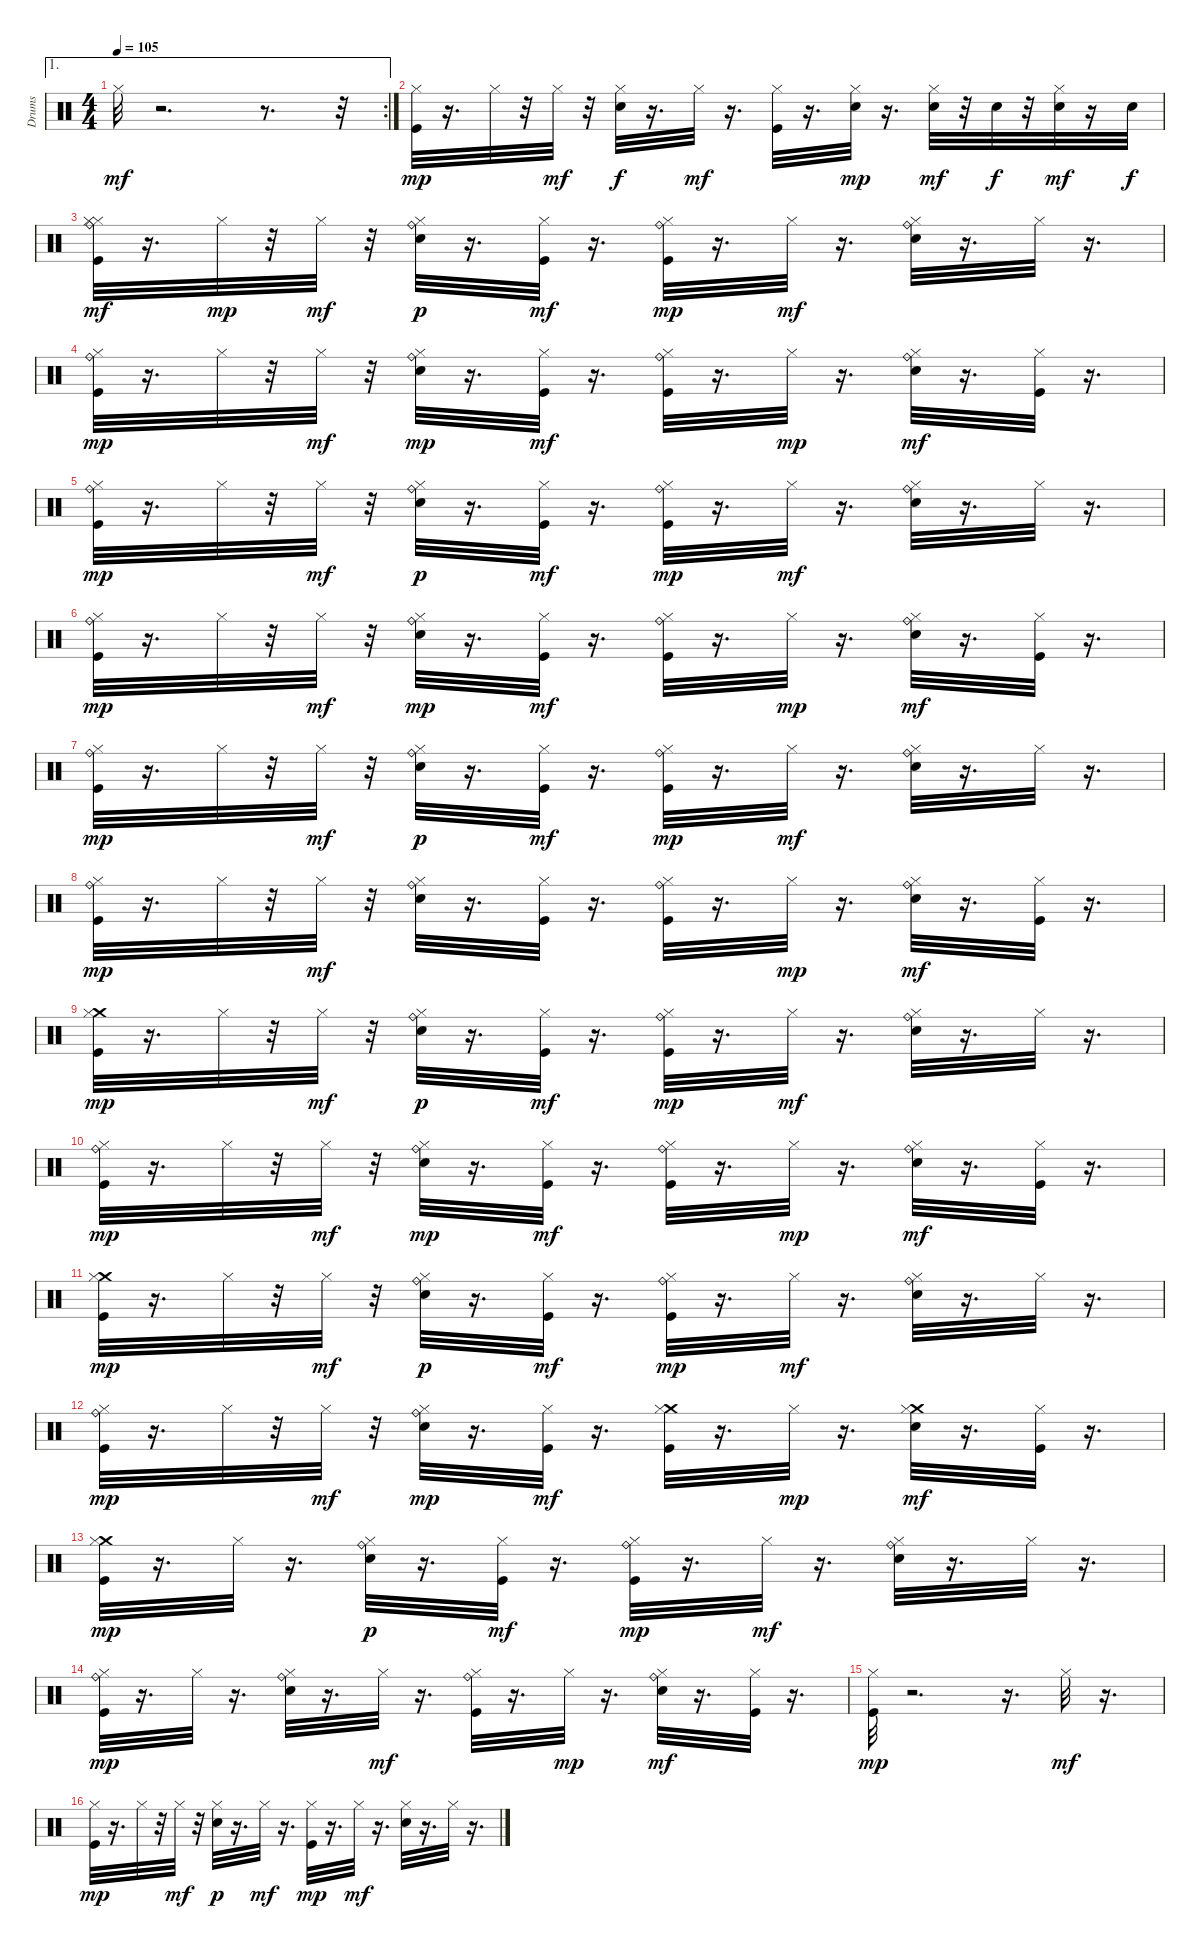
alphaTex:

\track ("Drums" "Drums") {instrument percussion}
\staff {score}
\articulation defaults
\ae 1
\rc 2
\ts (4 4)
\tempo 105
\clef neutral
\ks c "Hi-Hat (closed)".32{dy mf}
r.2{d} r.8{d} r.32 |
("Kick (hit)" "Hi-Hat (closed)").32{dy mp} r.16{d} "Hi-Hat (closed)".32 r.32 "Hi-Hat (closed)".32{dy mf} r.32 ("Snare (hit) 2" "Hi-Hat (closed)").32{dy f} r.16{d} "Hi-Hat (closed)".32{dy mf} r.16{d} ("Kick (hit)" "Hi-Hat (closed)").32 r.16{d} ("Snare (hit) 2" "Hi-Hat (closed)").32{dy mp} r.16{d} ("Snare (hit) 2" "Hi-Hat (closed)").32{dy mf} r.32 "Snare (hit) 2".32{dy f} r.32 ("Snare (hit) 2" "Hi-Hat (closed)").32{dy mf} r.16 "Snare (hit) 2".32{dy f} |
("Ride (bell)" "Kick (hit)" "Hi-Hat (closed)" "Hi-Hat (closed)").32{dy mf} r.16{d} "Hi-Hat (closed)".32{dy mp} r.32 "Hi-Hat (closed)".32{dy mf} r.32 ("Snare (hit) 2" "Ride (bell)" "Hi-Hat (closed)").32{dy p} r.16{d} ("Kick (hit)" "Hi-Hat (closed)").32{dy mf} r.16{d} ("Ride (bell)" "Kick (hit)" "Hi-Hat (closed)").32{dy mp} r.16{d} "Hi-Hat (closed)".32{dy mf} r.16{d} ("Snare (hit) 2" "Ride (bell)" "Hi-Hat (closed)").32 r.16{d} "Hi-Hat (closed)".32 r.16{d} |
("Ride (bell)" "Kick (hit)" "Hi-Hat (closed)").32{dy mp} r.16{d} "Hi-Hat (closed)".32 r.32 "Hi-Hat (closed)".32{dy mf} r.32 ("Snare (hit) 2" "Ride (bell)" "Hi-Hat (closed)").32{dy mp} r.16{d} ("Kick (hit)" "Hi-Hat (closed)").32{dy mf} r.16{d} ("Ride (bell)" "Kick (hit)" "Hi-Hat (closed)").32 r.16{d} "Hi-Hat (closed)".32{dy mp} r.16{d} ("Snare (hit) 2" "Ride (bell)" "Hi-Hat (closed)").32{dy mf} r.16{d} ("Kick (hit)" "Hi-Hat (closed)").32 r.16{d} |
("Ride (bell)" "Kick (hit)" "Hi-Hat (closed)").32{dy mp} r.16{d} "Hi-Hat (closed)".32 r.32 "Hi-Hat (closed)".32{dy mf} r.32 ("Snare (hit) 2" "Ride (bell)" "Hi-Hat (closed)").32{dy p} r.16{d} ("Kick (hit)" "Hi-Hat (closed)").32{dy mf} r.16{d} ("Ride (bell)" "Kick (hit)" "Hi-Hat (closed)").32{dy mp} r.16{d} "Hi-Hat (closed)".32{dy mf} r.16{d} ("Snare (hit) 2" "Ride (bell)" "Hi-Hat (closed)").32 r.16{d} "Hi-Hat (closed)".32 r.16{d} |
("Ride (bell)" "Kick (hit)" "Hi-Hat (closed)").32{dy mp} r.16{d} "Hi-Hat (closed)".32 r.32 "Hi-Hat (closed)".32{dy mf} r.32 ("Snare (hit) 2" "Ride (bell)" "Hi-Hat (closed)").32{dy mp} r.16{d} ("Kick (hit)" "Hi-Hat (closed)").32{dy mf} r.16{d} ("Ride (bell)" "Kick (hit)" "Hi-Hat (closed)").32 r.16{d} "Hi-Hat (closed)".32{dy mp} r.16{d} ("Snare (hit) 2" "Ride (bell)" "Hi-Hat (closed)").32{dy mf} r.16{d} ("Kick (hit)" "Hi-Hat (closed)").32 r.16{d} |
("Ride (bell)" "Kick (hit)" "Hi-Hat (closed)").32{dy mp} r.16{d} "Hi-Hat (closed)".32 r.32 "Hi-Hat (closed)".32{dy mf} r.32 ("Snare (hit) 2" "Ride (bell)" "Hi-Hat (closed)").32{dy p} r.16{d} ("Kick (hit)" "Hi-Hat (closed)").32{dy mf} r.16{d} ("Ride (bell)" "Kick (hit)" "Hi-Hat (closed)").32{dy mp} r.16{d} "Hi-Hat (closed)".32{dy mf} r.16{d} ("Snare (hit) 2" "Ride (bell)" "Hi-Hat (closed)").32 r.16{d} "Hi-Hat (closed)".32 r.16{d} |
("Ride (bell)" "Kick (hit)" "Hi-Hat (closed)").32{dy mp} r.16{d} "Hi-Hat (closed)".32 r.32 "Hi-Hat (closed)".32{dy mf} r.32 ("Snare (hit) 2" "Ride (bell)" "Hi-Hat (closed)").32 r.16{d} ("Kick (hit)" "Hi-Hat (closed)").32 r.16{d} ("Ride (bell)" "Kick (hit)" "Hi-Hat (closed)").32 r.16{d} "Hi-Hat (closed)".32{dy mp} r.16{d} ("Snare (hit) 2" "Ride (bell)" "Hi-Hat (closed)").32{dy mf} r.16{d} ("Kick (hit)" "Hi-Hat (closed)").32 r.16{d} |
("Crash medium (hit)" "Kick (hit)" "Hi-Hat (closed)").32{dy mp} r.16{d} "Hi-Hat (closed)".32 r.32 "Hi-Hat (closed)".32{dy mf} r.32 ("Snare (hit) 2" "Ride (bell)" "Hi-Hat (closed)").32{dy p} r.16{d} ("Kick (hit)" "Hi-Hat (closed)").32{dy mf} r.16{d} ("Ride (bell)" "Kick (hit)" "Hi-Hat (closed)").32{dy mp} r.16{d} "Hi-Hat (closed)".32{dy mf} r.16{d} ("Snare (hit) 2" "Ride (bell)" "Hi-Hat (closed)").32 r.16{d} "Hi-Hat (closed)".32 r.16{d} |
("Ride (bell)" "Kick (hit)" "Hi-Hat (closed)").32{dy mp} r.16{d} "Hi-Hat (closed)".32 r.32 "Hi-Hat (closed)".32{dy mf} r.32 ("Snare (hit) 2" "Ride (bell)" "Hi-Hat (closed)").32{dy mp} r.16{d} ("Kick (hit)" "Hi-Hat (closed)").32{dy mf} r.16{d} ("Ride (bell)" "Kick (hit)" "Hi-Hat (closed)").32 r.16{d} "Hi-Hat (closed)".32{dy mp} r.16{d} ("Snare (hit) 2" "Ride (bell)" "Hi-Hat (closed)").32{dy mf} r.16{d} ("Kick (hit)" "Hi-Hat (closed)").32 r.16{d} |
("Crash medium (hit)" "Kick (hit)" "Hi-Hat (closed)").32{dy mp} r.16{d} "Hi-Hat (closed)".32 r.32 "Hi-Hat (closed)".32{dy mf} r.32 ("Snare (hit) 2" "Ride (bell)" "Hi-Hat (closed)").32{dy p} r.16{d} ("Kick (hit)" "Hi-Hat (closed)").32{dy mf} r.16{d} ("Ride (bell)" "Kick (hit)" "Hi-Hat (closed)").32{dy mp} r.16{d} "Hi-Hat (closed)".32{dy mf} r.16{d} ("Snare (hit) 2" "Ride (bell)" "Hi-Hat (closed)").32 r.16{d} "Hi-Hat (closed)".32 r.16{d} |
("Ride (bell)" "Kick (hit)" "Hi-Hat (closed)").32{dy mp} r.16{d} "Hi-Hat (closed)".32 r.32 "Hi-Hat (closed)".32{dy mf} r.32 ("Snare (hit) 2" "Ride (bell)" "Hi-Hat (closed)").32{dy mp} r.16{d} ("Kick (hit)" "Hi-Hat (closed)").32{dy mf} r.16{d} ("Crash medium (hit)" "Kick (hit)" "Hi-Hat (closed)").32 r.16{d} "Hi-Hat (closed)".32{dy mp} r.16{d} ("Crash medium (hit)" "Snare (hit) 2" "Hi-Hat (closed)").32{dy mf} r.16{d} ("Kick (hit)" "Hi-Hat (closed)").32 r.16{d} |
("Crash medium (hit)" "Kick (hit)" "Hi-Hat (closed)").32{dy mp} r.16{d} "Hi-Hat (closed)".32 r.16{d} ("Snare (hit) 2" "Ride (bell)" "Hi-Hat (closed)").32{dy p} r.16{d} ("Kick (hit)" "Hi-Hat (closed)").32{dy mf} r.16{d} ("Ride (bell)" "Kick (hit)" "Hi-Hat (closed)").32{dy mp} r.16{d} "Hi-Hat (closed)".32{dy mf} r.16{d} ("Snare (hit) 2" "Ride (bell)" "Hi-Hat (closed)").32 r.16{d} "Hi-Hat (closed)".32 r.16{d} |
("Ride (bell)" "Kick (hit)" "Hi-Hat (closed)").32{dy mp} r.16{d} "Hi-Hat (closed)".32 r.16{d} ("Snare (hit) 2" "Ride (bell)" "Hi-Hat (closed)").32 r.16{d} "Hi-Hat (closed)".32{dy mf} r.16{d} ("Ride (bell)" "Kick (hit)" "Hi-Hat (closed)").32 r.16{d} "Hi-Hat (closed)".32{dy mp} r.16{d} ("Snare (hit) 2" "Ride (bell)" "Hi-Hat (closed)").32{dy mf} r.16{d} ("Kick (hit)" "Hi-Hat (closed)").32 r.16{d} |
("Kick (hit)" "Hi-Hat (closed)").32{dy mp} r.2{d} r.16{d} "Hi-Hat (closed)".32{dy mf} r.16{d} |
("Kick (hit)" "Hi-Hat (closed)").32{dy mp} r.16{d} "Hi-Hat (closed)".32 r.32 "Hi-Hat (closed)".32{dy mf} r.32 ("Snare (hit) 2" "Hi-Hat (closed)").32{dy p} r.16{d} "Hi-Hat (closed)".32{dy mf} r.16{d} ("Kick (hit)" "Hi-Hat (closed)").32{dy mp} r.16{d} "Hi-Hat (closed)".32{dy mf} r.16{d} ("Snare (hit) 2" "Hi-Hat (closed)").32 r.16{d} "Hi-Hat (closed)".32 r.16{d}
